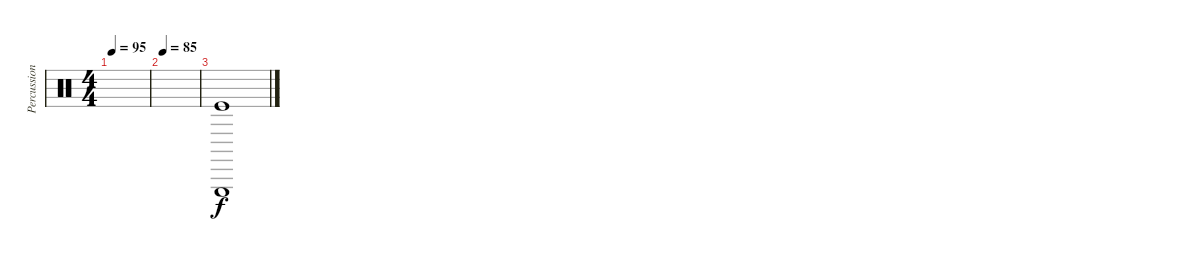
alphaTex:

\track ("Percussion" "Percussion") {instrument percussion}
\staff {score}
\articulation defaults
\ts (4 4)
\tempo 95
\clef neutral
\ks c
|
\tempo 85
|
("Triangle (hit)" "Kick (hit)").1
